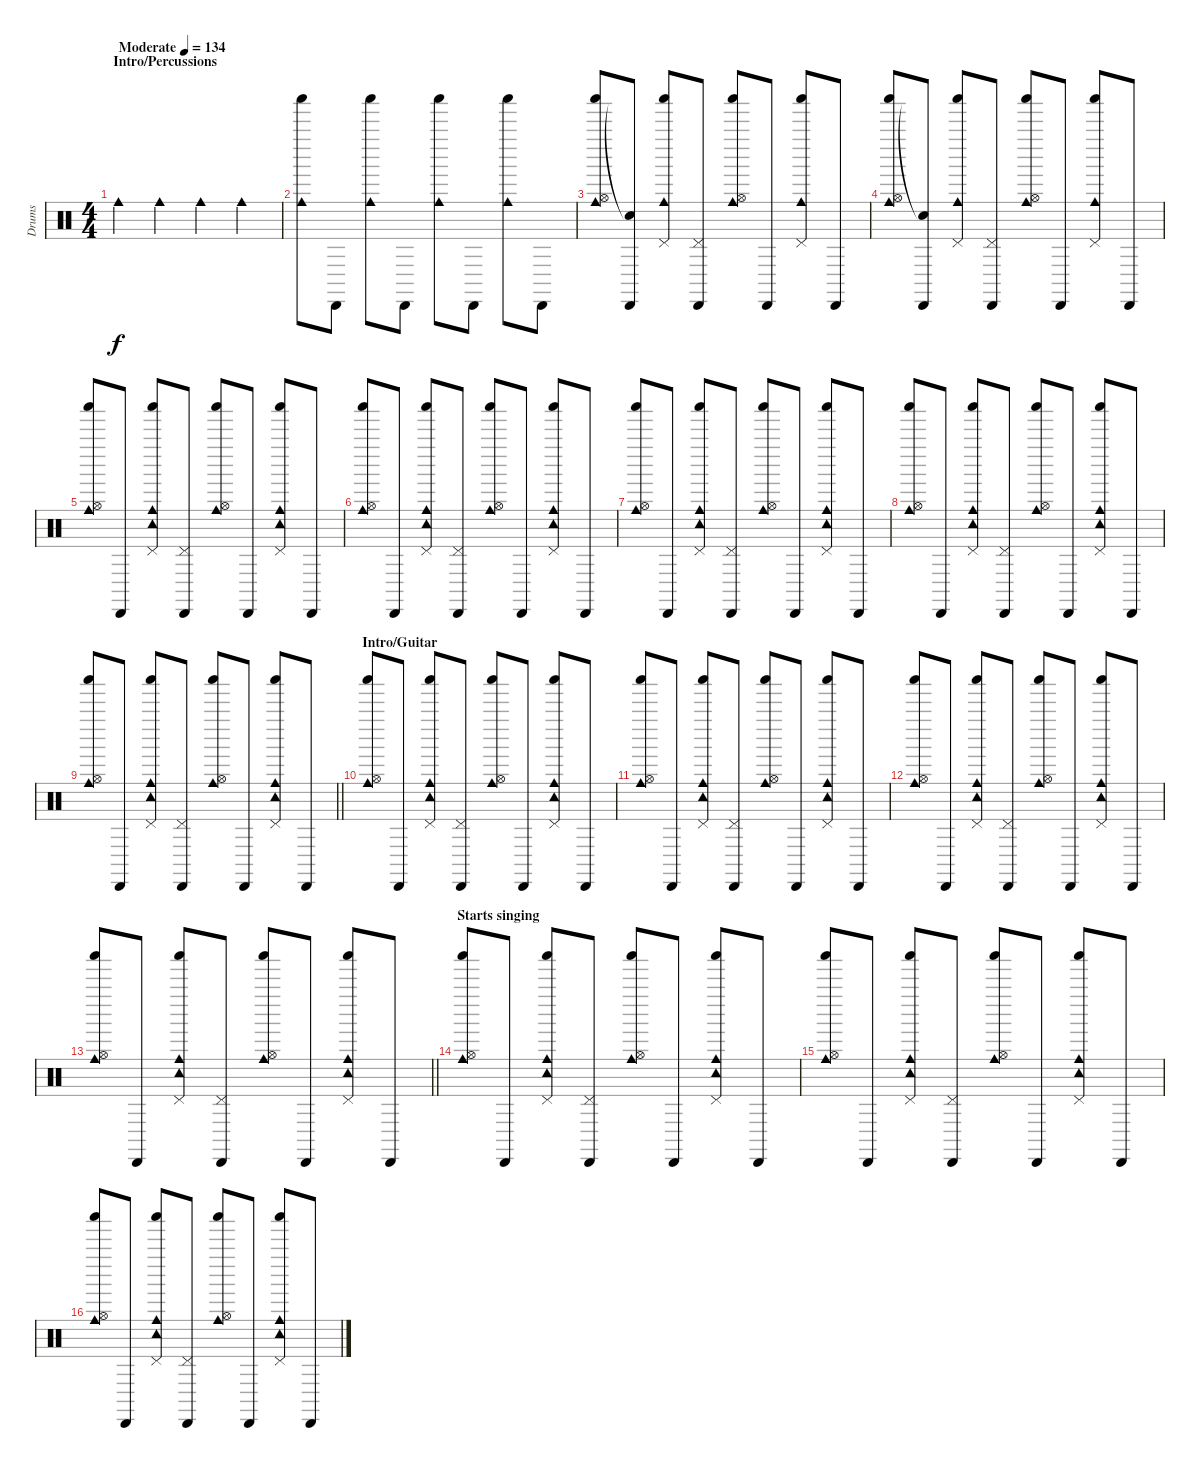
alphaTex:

\track ("Drums" "Drums") {instrument percussion}
\staff {score}
\articulation defaults
\ts (4 4)
\section ("" "Intro/Percussions")
\tempo (134 "Moderate")
\clef neutral
\ks c "Cowbell medium (hit)".4{dy f} "Cowbell medium (hit)".4 "Cowbell medium (hit)".4 "Cowbell medium (hit)".4
|
("Cowbell medium (hit)" "Shaker (hit)").8 "Cabasa (hit)".8 ("Cowbell medium (hit)" "Shaker (hit)").8 "Cabasa (hit)".8 ("Cowbell medium (hit)" "Shaker (hit)").8 "Cabasa (hit)".8 ("Cowbell medium (hit)" "Shaker (hit)").8 "Cabasa (hit)".8 |
("Cowbell medium (hit)" "Shaker (hit)" "Hi-Hat (open)").8 ("Cabasa (hit)" "Snare (hit)"{t}).8 ("Cowbell medium (hit)" "Shaker (hit)" "Pedal Hi-Hat (hit)").8 ("Cabasa (hit)" "Pedal Hi-Hat (hit)").8 ("Cowbell medium (hit)" "Shaker (hit)" "Hi-Hat (open)").8 "Cabasa (hit)".8 ("Cowbell medium (hit)" "Shaker (hit)" "Pedal Hi-Hat (hit)").8 "Cabasa (hit)".8 |
("Cowbell medium (hit)" "Shaker (hit)" "Hi-Hat (open)").8 ("Cabasa (hit)" "Snare (hit)"{t}).8 ("Cowbell medium (hit)" "Shaker (hit)" "Pedal Hi-Hat (hit)").8 ("Cabasa (hit)" "Pedal Hi-Hat (hit)").8 ("Cowbell medium (hit)" "Shaker (hit)" "Hi-Hat (open)").8 "Cabasa (hit)".8 ("Cowbell medium (hit)" "Shaker (hit)" "Pedal Hi-Hat (hit)").8 "Cabasa (hit)".8 |
("Cowbell medium (hit)" "Shaker (hit)" "Hi-Hat (open)").8 "Cabasa (hit)".8 ("Cowbell medium (hit)" "Shaker (hit)" "Tambourine (hit)" "Pedal Hi-Hat (hit)").8 ("Cabasa (hit)" "Pedal Hi-Hat (hit)").8 ("Cowbell medium (hit)" "Shaker (hit)" "Hi-Hat (open)").8 "Cabasa (hit)".8 ("Cowbell medium (hit)" "Shaker (hit)" "Tambourine (hit)" "Pedal Hi-Hat (hit)").8 "Cabasa (hit)".8 |
("Cowbell medium (hit)" "Shaker (hit)" "Hi-Hat (open)").8 "Cabasa (hit)".8 ("Cowbell medium (hit)" "Shaker (hit)" "Tambourine (hit)" "Pedal Hi-Hat (hit)").8 ("Cabasa (hit)" "Pedal Hi-Hat (hit)").8 ("Cowbell medium (hit)" "Shaker (hit)" "Hi-Hat (open)").8 "Cabasa (hit)".8 ("Cowbell medium (hit)" "Shaker (hit)" "Tambourine (hit)" "Pedal Hi-Hat (hit)").8 "Cabasa (hit)".8 |
("Cowbell medium (hit)" "Shaker (hit)" "Hi-Hat (open)").8 "Cabasa (hit)".8 ("Cowbell medium (hit)" "Shaker (hit)" "Tambourine (hit)" "Pedal Hi-Hat (hit)").8 ("Cabasa (hit)" "Pedal Hi-Hat (hit)").8 ("Cowbell medium (hit)" "Shaker (hit)" "Hi-Hat (open)").8 "Cabasa (hit)".8 ("Cowbell medium (hit)" "Shaker (hit)" "Tambourine (hit)" "Pedal Hi-Hat (hit)").8 "Cabasa (hit)".8 |
("Cowbell medium (hit)" "Shaker (hit)" "Hi-Hat (open)").8 "Cabasa (hit)".8 ("Cowbell medium (hit)" "Shaker (hit)" "Tambourine (hit)" "Pedal Hi-Hat (hit)").8 ("Cabasa (hit)" "Pedal Hi-Hat (hit)").8 ("Cowbell medium (hit)" "Shaker (hit)" "Hi-Hat (open)").8 "Cabasa (hit)".8 ("Cowbell medium (hit)" "Shaker (hit)" "Tambourine (hit)" "Pedal Hi-Hat (hit)").8 "Cabasa (hit)".8 |
\barLineRight lightlight
("Cowbell medium (hit)" "Shaker (hit)" "Hi-Hat (open)").8 "Cabasa (hit)".8 ("Cowbell medium (hit)" "Shaker (hit)" "Tambourine (hit)" "Pedal Hi-Hat (hit)").8 ("Cabasa (hit)" "Pedal Hi-Hat (hit)").8 ("Cowbell medium (hit)" "Shaker (hit)" "Hi-Hat (open)").8 "Cabasa (hit)".8 ("Cowbell medium (hit)" "Shaker (hit)" "Tambourine (hit)" "Pedal Hi-Hat (hit)").8 "Cabasa (hit)".8 |
\section ("" "Intro/Guitar")
("Cowbell medium (hit)" "Shaker (hit)" "Hi-Hat (open)").8 "Cabasa (hit)".8 ("Cowbell medium (hit)" "Shaker (hit)" "Tambourine (hit)" "Pedal Hi-Hat (hit)").8 ("Cabasa (hit)" "Pedal Hi-Hat (hit)").8 ("Cowbell medium (hit)" "Shaker (hit)" "Hi-Hat (open)").8 "Cabasa (hit)".8 ("Cowbell medium (hit)" "Shaker (hit)" "Tambourine (hit)" "Pedal Hi-Hat (hit)").8 "Cabasa (hit)".8 |
("Cowbell medium (hit)" "Shaker (hit)" "Hi-Hat (open)").8 "Cabasa (hit)".8 ("Cowbell medium (hit)" "Shaker (hit)" "Tambourine (hit)" "Pedal Hi-Hat (hit)").8 ("Cabasa (hit)" "Pedal Hi-Hat (hit)").8 ("Cowbell medium (hit)" "Shaker (hit)" "Hi-Hat (open)").8 "Cabasa (hit)".8 ("Cowbell medium (hit)" "Shaker (hit)" "Tambourine (hit)" "Pedal Hi-Hat (hit)").8 "Cabasa (hit)".8 |
("Cowbell medium (hit)" "Shaker (hit)" "Hi-Hat (open)").8 "Cabasa (hit)".8 ("Cowbell medium (hit)" "Shaker (hit)" "Tambourine (hit)" "Pedal Hi-Hat (hit)").8 ("Cabasa (hit)" "Pedal Hi-Hat (hit)").8 ("Cowbell medium (hit)" "Shaker (hit)" "Hi-Hat (open)").8 "Cabasa (hit)".8 ("Cowbell medium (hit)" "Shaker (hit)" "Tambourine (hit)" "Pedal Hi-Hat (hit)").8 "Cabasa (hit)".8 |
\barLineRight lightlight
("Cowbell medium (hit)" "Shaker (hit)" "Hi-Hat (open)").8 "Cabasa (hit)".8 ("Cowbell medium (hit)" "Shaker (hit)" "Tambourine (hit)" "Pedal Hi-Hat (hit)").8 ("Cabasa (hit)" "Pedal Hi-Hat (hit)").8 ("Cowbell medium (hit)" "Shaker (hit)" "Hi-Hat (open)").8 "Cabasa (hit)".8 ("Cowbell medium (hit)" "Shaker (hit)" "Tambourine (hit)" "Pedal Hi-Hat (hit)").8 "Cabasa (hit)".8 |
\section ("" "Starts singing")
("Cowbell medium (hit)" "Shaker (hit)" "Hi-Hat (open)").8 "Cabasa (hit)".8 ("Cowbell medium (hit)" "Shaker (hit)" "Tambourine (hit)" "Pedal Hi-Hat (hit)").8 ("Cabasa (hit)" "Pedal Hi-Hat (hit)").8 ("Cowbell medium (hit)" "Shaker (hit)" "Hi-Hat (open)").8 "Cabasa (hit)".8 ("Cowbell medium (hit)" "Shaker (hit)" "Tambourine (hit)" "Pedal Hi-Hat (hit)").8 "Cabasa (hit)".8 |
("Cowbell medium (hit)" "Shaker (hit)" "Hi-Hat (open)").8 "Cabasa (hit)".8 ("Cowbell medium (hit)" "Shaker (hit)" "Tambourine (hit)" "Pedal Hi-Hat (hit)").8 ("Cabasa (hit)" "Pedal Hi-Hat (hit)").8 ("Cowbell medium (hit)" "Shaker (hit)" "Hi-Hat (open)").8 "Cabasa (hit)".8 ("Cowbell medium (hit)" "Shaker (hit)" "Tambourine (hit)" "Pedal Hi-Hat (hit)").8 "Cabasa (hit)".8 |
("Cowbell medium (hit)" "Shaker (hit)" "Hi-Hat (open)").8 "Cabasa (hit)".8 ("Cowbell medium (hit)" "Shaker (hit)" "Tambourine (hit)" "Pedal Hi-Hat (hit)").8 ("Cabasa (hit)" "Pedal Hi-Hat (hit)").8 ("Cowbell medium (hit)" "Shaker (hit)" "Hi-Hat (open)").8 "Cabasa (hit)".8 ("Cowbell medium (hit)" "Shaker (hit)" "Tambourine (hit)" "Pedal Hi-Hat (hit)").8 "Cabasa (hit)".8
